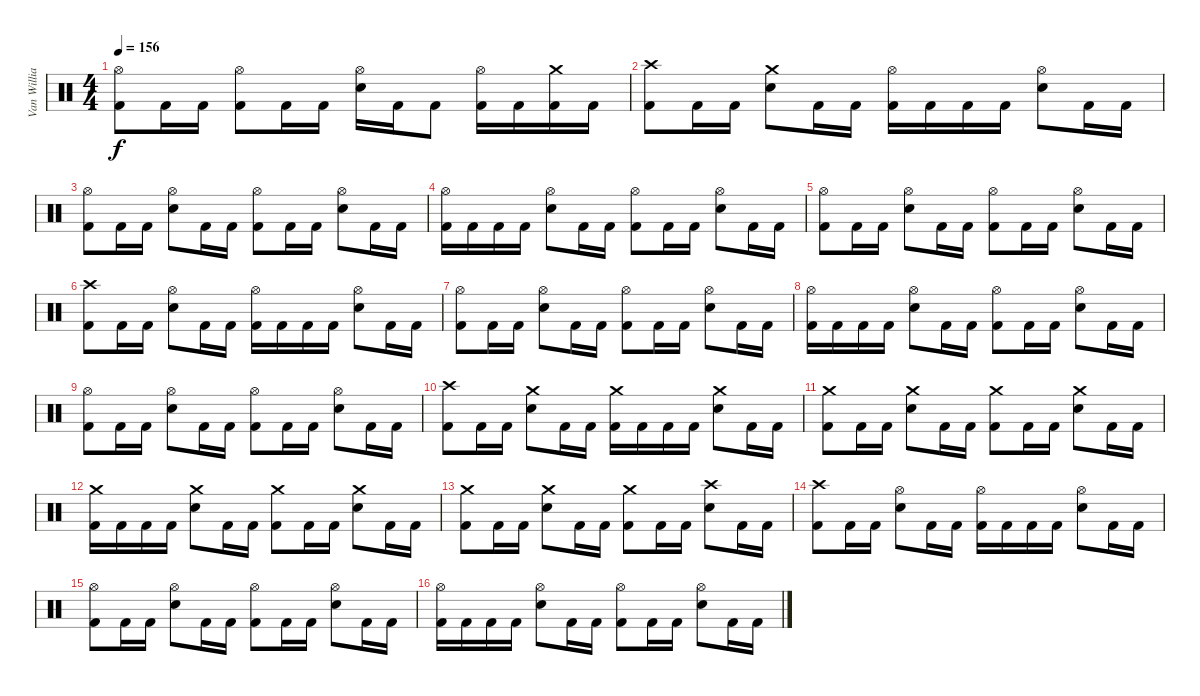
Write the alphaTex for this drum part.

\track ("Van Williams" "Van Willia") {instrument percussion}
\staff {score}
\articulation defaults
\ts (4 4)
\tempo 156
\clef neutral
\ks c
("Hi-Hat (open)" "Kick (hit) 2").8{dy f} "Kick (hit) 2".16 "Kick (hit) 2".16 ("Hi-Hat (open)" "Kick (hit) 2").8 "Kick (hit) 2".16 "Kick (hit) 2".16 ("Hi-Hat (open)" "Electric Snare (hit)").16 "Kick (hit) 2".16 "Kick (hit) 2".8 ("Hi-Hat (open)" "Kick (hit) 2").16 "Kick (hit) 2".16 ("Crash medium (hit)" "Kick (hit) 2").16 "Kick (hit) 2".16 |
\section ("" "")
("Crash high (hit)" "Kick (hit) 2").8 "Kick (hit) 2".16 "Kick (hit) 2".16 ("Crash medium (hit)" "Electric Snare (hit)").8 "Kick (hit) 2".16 "Kick (hit) 2".16 ("Hi-Hat (open)" "Kick (hit) 2").16 "Kick (hit) 2".16 "Kick (hit) 2".16 "Kick (hit) 2".16 ("Hi-Hat (open)" "Electric Snare (hit)").8 "Kick (hit) 2".16 "Kick (hit) 2".16 |
("Hi-Hat (open)" "Kick (hit) 2").8 "Kick (hit) 2".16 "Kick (hit) 2".16 ("Hi-Hat (open)" "Electric Snare (hit)").8 "Kick (hit) 2".16 "Kick (hit) 2".16 ("Hi-Hat (open)" "Kick (hit) 2").8 "Kick (hit) 2".16 "Kick (hit) 2".16 ("Hi-Hat (open)" "Electric Snare (hit)").8 "Kick (hit) 2".16 "Kick (hit) 2".16 |
("Hi-Hat (open)" "Kick (hit) 2").16 "Kick (hit) 2".16 "Kick (hit) 2".16 "Kick (hit) 2".16 ("Hi-Hat (open)" "Electric Snare (hit)").8 "Kick (hit) 2".16 "Kick (hit) 2".16 ("Hi-Hat (open)" "Kick (hit) 2").8 "Kick (hit) 2".16 "Kick (hit) 2".16 ("Hi-Hat (open)" "Electric Snare (hit)").8 "Kick (hit) 2".16 "Kick (hit) 2".16 |
("Hi-Hat (open)" "Kick (hit) 2").8 "Kick (hit) 2".16 "Kick (hit) 2".16 ("Hi-Hat (open)" "Electric Snare (hit)").8 "Kick (hit) 2".16 "Kick (hit) 2".16 ("Hi-Hat (open)" "Kick (hit) 2").8 "Kick (hit) 2".16 "Kick (hit) 2".16 ("Hi-Hat (open)" "Electric Snare (hit)").8 "Kick (hit) 2".16 "Kick (hit) 2".16 |
("Crash high (hit)" "Kick (hit) 2").8 "Kick (hit) 2".16 "Kick (hit) 2".16 ("Hi-Hat (open)" "Electric Snare (hit)").8 "Kick (hit) 2".16 "Kick (hit) 2".16 ("Hi-Hat (open)" "Kick (hit) 2").16 "Kick (hit) 2".16 "Kick (hit) 2".16 "Kick (hit) 2".16 ("Hi-Hat (open)" "Electric Snare (hit)").8 "Kick (hit) 2".16 "Kick (hit) 2".16 |
("Hi-Hat (open)" "Kick (hit) 2").8 "Kick (hit) 2".16 "Kick (hit) 2".16 ("Hi-Hat (open)" "Electric Snare (hit)").8 "Kick (hit) 2".16 "Kick (hit) 2".16 ("Hi-Hat (open)" "Kick (hit) 2").8 "Kick (hit) 2".16 "Kick (hit) 2".16 ("Hi-Hat (open)" "Electric Snare (hit)").8 "Kick (hit) 2".16 "Kick (hit) 2".16 |
("Hi-Hat (open)" "Kick (hit) 2").16 "Kick (hit) 2".16 "Kick (hit) 2".16 "Kick (hit) 2".16 ("Hi-Hat (open)" "Electric Snare (hit)").8 "Kick (hit) 2".16 "Kick (hit) 2".16 ("Hi-Hat (open)" "Kick (hit) 2").8 "Kick (hit) 2".16 "Kick (hit) 2".16 ("Hi-Hat (open)" "Electric Snare (hit)").8 "Kick (hit) 2".16 "Kick (hit) 2".16 |
("Hi-Hat (open)" "Kick (hit) 2").8 "Kick (hit) 2".16 "Kick (hit) 2".16 ("Hi-Hat (open)" "Electric Snare (hit)").8 "Kick (hit) 2".16 "Kick (hit) 2".16 ("Hi-Hat (open)" "Kick (hit) 2").8 "Kick (hit) 2".16 "Kick (hit) 2".16 ("Hi-Hat (open)" "Electric Snare (hit)").8 "Kick (hit) 2".16 "Kick (hit) 2".16 |
\section ("" "")
("Crash high (hit)" "Kick (hit) 2").8 "Kick (hit) 2".16 "Kick (hit) 2".16 ("Crash medium (hit)" "Electric Snare (hit)").8 "Kick (hit) 2".16 "Kick (hit) 2".16 ("Crash medium (hit)" "Kick (hit) 2").16 "Kick (hit) 2".16 "Kick (hit) 2".16 "Kick (hit) 2".16 ("Crash medium (hit)" "Electric Snare (hit)").8 "Kick (hit) 2".16 "Kick (hit) 2".16 |
("Crash medium (hit)" "Kick (hit) 2").8 "Kick (hit) 2".16 "Kick (hit) 2".16 ("Crash medium (hit)" "Electric Snare (hit)").8 "Kick (hit) 2".16 "Kick (hit) 2".16 ("Crash medium (hit)" "Kick (hit) 2").8 "Kick (hit) 2".16 "Kick (hit) 2".16 ("Crash medium (hit)" "Electric Snare (hit)").8 "Kick (hit) 2".16 "Kick (hit) 2".16 |
("Crash medium (hit)" "Kick (hit) 2").16 "Kick (hit) 2".16 "Kick (hit) 2".16 "Kick (hit) 2".16 ("Crash medium (hit)" "Electric Snare (hit)").8 "Kick (hit) 2".16 "Kick (hit) 2".16 ("Crash medium (hit)" "Kick (hit) 2").8 "Kick (hit) 2".16 "Kick (hit) 2".16 ("Crash medium (hit)" "Electric Snare (hit)").8 "Kick (hit) 2".16 "Kick (hit) 2".16 |
("Crash medium (hit)" "Kick (hit) 2").8 "Kick (hit) 2".16 "Kick (hit) 2".16 ("Crash medium (hit)" "Electric Snare (hit)").8 "Kick (hit) 2".16 "Kick (hit) 2".16 ("Crash medium (hit)" "Kick (hit) 2").8 "Kick (hit) 2".16 "Kick (hit) 2".16 ("Crash high (hit)" "Electric Snare (hit)").8 "Kick (hit) 2".16 "Kick (hit) 2".16 |
("Crash high (hit)" "Kick (hit) 2").8 "Kick (hit) 2".16 "Kick (hit) 2".16 ("Hi-Hat (open)" "Electric Snare (hit)").8 "Kick (hit) 2".16 "Kick (hit) 2".16 ("Hi-Hat (open)" "Kick (hit) 2").16 "Kick (hit) 2".16 "Kick (hit) 2".16 "Kick (hit) 2".16 ("Hi-Hat (open)" "Electric Snare (hit)").8 "Kick (hit) 2".16 "Kick (hit) 2".16 |
("Hi-Hat (open)" "Kick (hit) 2").8 "Kick (hit) 2".16 "Kick (hit) 2".16 ("Hi-Hat (open)" "Electric Snare (hit)").8 "Kick (hit) 2".16 "Kick (hit) 2".16 ("Hi-Hat (open)" "Kick (hit) 2").8 "Kick (hit) 2".16 "Kick (hit) 2".16 ("Hi-Hat (open)" "Electric Snare (hit)").8 "Kick (hit) 2".16 "Kick (hit) 2".16 |
("Hi-Hat (open)" "Kick (hit) 2").16 "Kick (hit) 2".16 "Kick (hit) 2".16 "Kick (hit) 2".16 ("Hi-Hat (open)" "Electric Snare (hit)").8 "Kick (hit) 2".16 "Kick (hit) 2".16 ("Hi-Hat (open)" "Kick (hit) 2").8 "Kick (hit) 2".16 "Kick (hit) 2".16 ("Hi-Hat (open)" "Electric Snare (hit)").8 "Kick (hit) 2".16 "Kick (hit) 2".16
